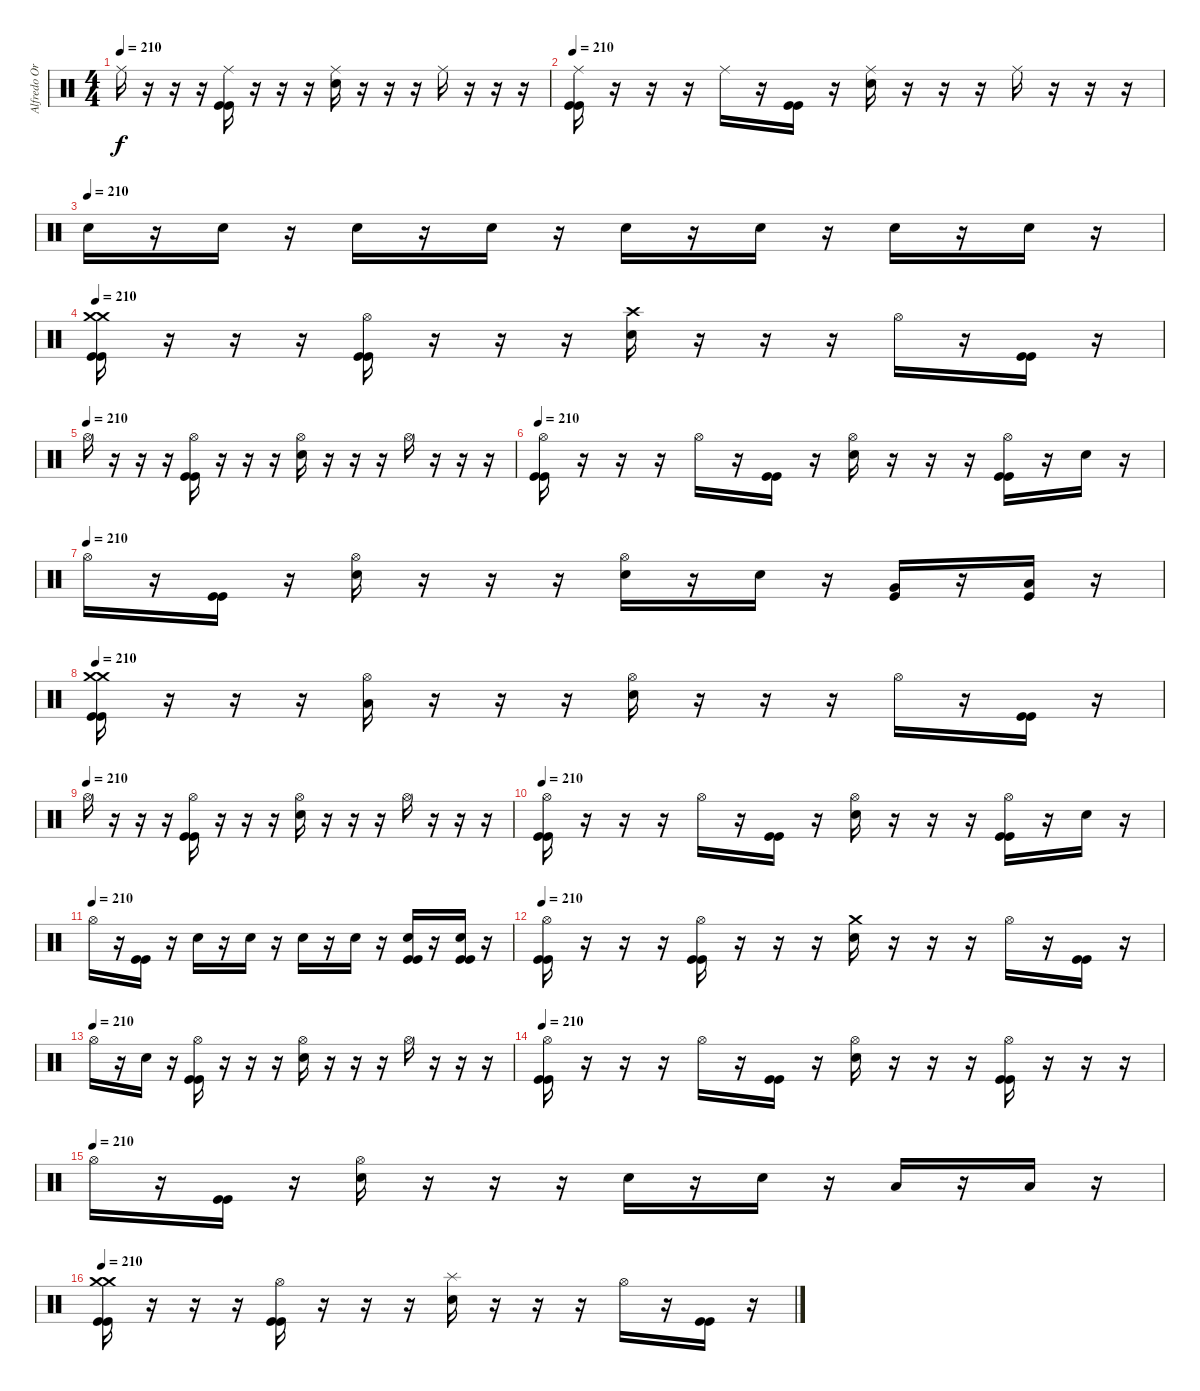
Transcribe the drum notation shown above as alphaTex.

\track ("Alfredo Ortiz" "Alfredo Or") {instrument percussion}
\staff {score}
\articulation defaults
\ts (4 4)
\tempo 210
\clef neutral
\ks c "Ride (middle)".16{dy f}
r.16 r.16 r.16 ("Ride (middle)" "Kick (hit)" "Kick (hit)").16 r.16 r.16 r.16 ("Ride (middle)" "Snare (hit) 2").16 r.16 r.16 r.16 "Ride (middle)".16 r.16 r.16 r.16 |
\tempo 210
("Ride (middle)" "Kick (hit)" "Kick (hit)").16 r.16 r.16 r.16 "Ride (middle)".16 r.16 ("Kick (hit)" "Kick (hit)").16 r.16 ("Ride (middle)" "Snare (hit) 2").16 r.16 r.16 r.16 "Ride (middle)".16 r.16 r.16 r.16 |
\tempo (210)
"Snare (hit) 2".16{volume 16} r.16 "Snare (hit) 2".16 r.16 "Snare (hit) 2".16 r.16 "Snare (hit) 2".16 r.16 "Snare (hit) 2".16 r.16 "Snare (hit) 2".16 r.16 "Snare (hit) 2".16 r.16 "Snare (hit) 2".16 r.16 |
\tempo 210
("Crash medium (hit)" "Crash medium (hit)" "Kick (hit)" "Kick (hit)").16 r.16 r.16 r.16 ("Hi-Hat (open)" "Kick (hit)" "Kick (hit)").16 r.16 r.16 r.16 ("Crash high (hit)" "Snare (hit) 2").16 r.16 r.16 r.16 "Hi-Hat (open)".16 r.16 ("Kick (hit)" "Kick (hit)").16 r.16 |
\tempo (210)
"Hi-Hat (open)".16 r.16 r.16 r.16 ("Hi-Hat (open)" "Kick (hit)" "Kick (hit)").16 r.16 r.16 r.16 ("Hi-Hat (open)" "Snare (hit) 2").16 r.16 r.16 r.16 "Hi-Hat (open)".16 r.16 r.16 r.16 |
\tempo 210
("Hi-Hat (open)" "Kick (hit)" "Kick (hit)").16 r.16 r.16 r.16 "Hi-Hat (open)".16 r.16 ("Kick (hit)" "Kick (hit)").16 r.16 ("Hi-Hat (open)" "Snare (hit) 2").16 r.16 r.16 r.16 ("Hi-Hat (open)" "Kick (hit)" "Kick (hit)").16 r.16 "Snare (hit) 2".16 r.16 |
\tempo (210)
"Hi-Hat (open)".16 r.16 ("Kick (hit)" "Kick (hit)").16 r.16 ("Hi-Hat (open)" "Snare (hit) 2").16 r.16 r.16 r.16 ("Hi-Hat (open)" "Snare (hit) 2").16 r.16 "Snare (hit) 2".16 r.16 ("Very Low Tom (hit)" "Kick (hit)").16 r.16 ("Low Floor Tom (hit)" "Kick (hit)").16 r.16 |
\tempo 210
("Crash medium (hit)" "Crash medium (hit)" "Kick (hit)" "Kick (hit)").16 r.16 r.16 r.16 ("Hi-Hat (open)" "Low Floor Tom (hit)").16 r.16 r.16 r.16 ("Hi-Hat (open)" "Snare (hit) 2").16 r.16 r.16 r.16 "Hi-Hat (open)".16 r.16 ("Kick (hit)" "Kick (hit)").16 r.16 |
\tempo (210)
"Hi-Hat (open)".16 r.16 r.16 r.16 ("Hi-Hat (open)" "Kick (hit)" "Kick (hit)").16 r.16 r.16 r.16 ("Hi-Hat (open)" "Snare (hit) 2").16 r.16 r.16 r.16 "Hi-Hat (open)".16 r.16 r.16 r.16 |
\tempo 210
("Hi-Hat (open)" "Kick (hit)" "Kick (hit)").16 r.16 r.16 r.16 "Hi-Hat (open)".16 r.16 ("Kick (hit)" "Kick (hit)").16 r.16 ("Hi-Hat (open)" "Snare (hit) 2").16 r.16 r.16 r.16 ("Hi-Hat (open)" "Kick (hit)" "Kick (hit)").16 r.16 "Snare (hit) 2".16 r.16 |
\tempo (210)
"Hi-Hat (open)".16 r.16 ("Kick (hit)" "Kick (hit)").16 r.16 "Snare (hit) 2".16 r.16 "Snare (hit) 2".16 r.16 "Snare (hit) 2".16 r.16 "Snare (hit) 2".16 r.16 ("Snare (hit) 2" "Kick (hit)" "Kick (hit)").16 r.16 ("Snare (hit) 2" "Kick (hit)" "Kick (hit)").16 r.16 |
\tempo 210
("Hi-Hat (open)" "Kick (hit)" "Kick (hit)").16 r.16 r.16 r.16 ("Hi-Hat (open)" "Kick (hit)" "Kick (hit)").16 r.16 r.16 r.16 ("Crash medium (hit)" "Snare (hit) 2").16 r.16 r.16 r.16 "Hi-Hat (open)".16 r.16 ("Kick (hit)" "Kick (hit)").16 r.16 |
\tempo (210)
"Hi-Hat (open)".16 r.16 "Snare (hit) 2".16 r.16 ("Hi-Hat (open)" "Kick (hit)" "Kick (hit)").16 r.16 r.16 r.16 ("Hi-Hat (open)" "Snare (hit) 2").16 r.16 r.16 r.16 "Hi-Hat (open)".16 r.16 r.16 r.16 |
\tempo 210
("Hi-Hat (open)" "Kick (hit)" "Kick (hit)").16 r.16 r.16 r.16 "Hi-Hat (open)".16 r.16 ("Kick (hit)" "Kick (hit)").16 r.16 ("Hi-Hat (open)" "Snare (hit) 2").16 r.16 r.16 r.16 ("Hi-Hat (open)" "Kick (hit)" "Kick (hit)").16 r.16 r.16 r.16 |
\tempo (210)
"Hi-Hat (open)".16 r.16 ("Kick (hit)" "Kick (hit)").16 r.16 ("Hi-Hat (open)" "Snare (hit) 2").16 r.16 r.16 r.16 "Snare (hit) 2".16 r.16 "Snare (hit) 2".16 r.16 "Low Tom (hit)".16 r.16 "Low Tom (hit)".16 r.16 |
\tempo 210
("Crash medium (hit)" "Crash medium (hit)" "Kick (hit)" "Kick (hit)").16 r.16 r.16 r.16 ("Hi-Hat (open)" "Kick (hit)" "Kick (hit)").16 r.16 r.16 r.16 ("Splash (hit)" "Snare (hit) 2").16 r.16 r.16 r.16 "Hi-Hat (open)".16 r.16 ("Kick (hit)" "Kick (hit)").16 r.16
